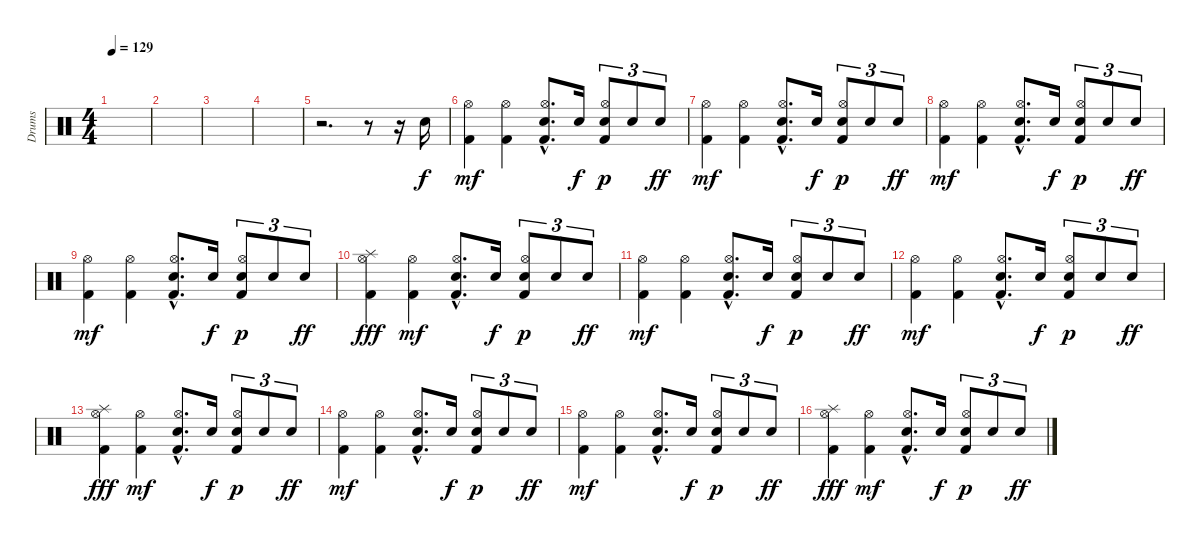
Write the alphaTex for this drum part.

\track ("Drums" "Drums") {instrument percussion}
\staff {score}
\articulation defaults
\ts (4 4)
\tempo 129
\clef neutral
\ks c
|
|
|
|
r.2{d} r.8 r.16 "Electric Snare (hit)".16 |
("Hi-Hat (open)" "Kick (hit) 2").4{dy mf} ("Hi-Hat (open)" "Kick (hit) 2").4 ("Hi-Hat (open)"{hac} "Electric Snare (hit)"{hac} "Kick (hit) 2"{hac}).8{d} "Electric Snare (hit)".16{dy f} ("Hi-Hat (open)" "Electric Snare (hit)" "Kick (hit) 2").8{tu (3 2) dy p} "Electric Snare (hit)".8{tu (3 2)} "Electric Snare (hit)".8{tu (3 2) dy ff} |
("Hi-Hat (open)" "Kick (hit) 2").4{dy mf} ("Hi-Hat (open)" "Kick (hit) 2").4 ("Hi-Hat (open)"{hac} "Electric Snare (hit)"{hac} "Kick (hit) 2"{hac}).8{d} "Electric Snare (hit)".16{dy f} ("Hi-Hat (open)" "Electric Snare (hit)" "Kick (hit) 2").8{tu (3 2) dy p} "Electric Snare (hit)".8{tu (3 2)} "Electric Snare (hit)".8{tu (3 2) dy ff} |
("Hi-Hat (open)" "Kick (hit) 2").4{dy mf} ("Hi-Hat (open)" "Kick (hit) 2").4 ("Hi-Hat (open)"{hac} "Electric Snare (hit)"{hac} "Kick (hit) 2"{hac}).8{d} "Electric Snare (hit)".16{dy f} ("Hi-Hat (open)" "Electric Snare (hit)" "Kick (hit) 2").8{tu (3 2) dy p} "Electric Snare (hit)".8{tu (3 2)} "Electric Snare (hit)".8{tu (3 2) dy ff} |
("Hi-Hat (open)" "Kick (hit) 2").4{dy mf} ("Hi-Hat (open)" "Kick (hit) 2").4 ("Hi-Hat (open)"{hac} "Electric Snare (hit)"{hac} "Kick (hit) 2"{hac}).8{d} "Electric Snare (hit)".16{dy f} ("Hi-Hat (open)" "Electric Snare (hit)" "Kick (hit) 2").8{tu (3 2) dy p} "Electric Snare (hit)".8{tu (3 2)} "Electric Snare (hit)".8{tu (3 2) dy ff} |
("Hi-Hat (open)" "Splash (hit)" "Kick (hit) 2").4{dy fff} ("Hi-Hat (open)" "Kick (hit) 2").4{dy mf} ("Hi-Hat (open)"{hac} "Electric Snare (hit)"{hac} "Kick (hit) 2"{hac}).8{d} "Electric Snare (hit)".16{dy f} ("Hi-Hat (open)" "Electric Snare (hit)" "Kick (hit) 2").8{tu (3 2) dy p} "Electric Snare (hit)".8{tu (3 2)} "Electric Snare (hit)".8{tu (3 2) dy ff} |
("Hi-Hat (open)" "Kick (hit) 2").4{dy mf} ("Hi-Hat (open)" "Kick (hit) 2").4 ("Hi-Hat (open)"{hac} "Electric Snare (hit)"{hac} "Kick (hit) 2"{hac}).8{d} "Electric Snare (hit)".16{dy f} ("Hi-Hat (open)" "Electric Snare (hit)" "Kick (hit) 2").8{tu (3 2) dy p} "Electric Snare (hit)".8{tu (3 2)} "Electric Snare (hit)".8{tu (3 2) dy ff} |
("Hi-Hat (open)" "Kick (hit) 2").4{dy mf} ("Hi-Hat (open)" "Kick (hit) 2").4 ("Hi-Hat (open)"{hac} "Electric Snare (hit)"{hac} "Kick (hit) 2"{hac}).8{d} "Electric Snare (hit)".16{dy f} ("Hi-Hat (open)" "Electric Snare (hit)" "Kick (hit) 2").8{tu (3 2) dy p} "Electric Snare (hit)".8{tu (3 2)} "Electric Snare (hit)".8{tu (3 2) dy ff} |
("Hi-Hat (open)" "Splash (hit)" "Kick (hit) 2").4{dy fff} ("Hi-Hat (open)" "Kick (hit) 2").4{dy mf} ("Hi-Hat (open)"{hac} "Electric Snare (hit)"{hac} "Kick (hit) 2"{hac}).8{d} "Electric Snare (hit)".16{dy f} ("Hi-Hat (open)" "Electric Snare (hit)" "Kick (hit) 2").8{tu (3 2) dy p} "Electric Snare (hit)".8{tu (3 2)} "Electric Snare (hit)".8{tu (3 2) dy ff} |
("Hi-Hat (open)" "Kick (hit) 2").4{dy mf} ("Hi-Hat (open)" "Kick (hit) 2").4 ("Hi-Hat (open)"{hac} "Electric Snare (hit)"{hac} "Kick (hit) 2"{hac}).8{d} "Electric Snare (hit)".16{dy f} ("Hi-Hat (open)" "Electric Snare (hit)" "Kick (hit) 2").8{tu (3 2) dy p} "Electric Snare (hit)".8{tu (3 2)} "Electric Snare (hit)".8{tu (3 2) dy ff} |
("Hi-Hat (open)" "Kick (hit) 2").4{dy mf} ("Hi-Hat (open)" "Kick (hit) 2").4 ("Hi-Hat (open)"{hac} "Electric Snare (hit)"{hac} "Kick (hit) 2"{hac}).8{d} "Electric Snare (hit)".16{dy f} ("Hi-Hat (open)" "Electric Snare (hit)" "Kick (hit) 2").8{tu (3 2) dy p} "Electric Snare (hit)".8{tu (3 2)} "Electric Snare (hit)".8{tu (3 2) dy ff} |
("Hi-Hat (open)" "Splash (hit)" "Kick (hit) 2").4{dy fff} ("Hi-Hat (open)" "Kick (hit) 2").4{dy mf} ("Hi-Hat (open)"{hac} "Electric Snare (hit)"{hac} "Kick (hit) 2"{hac}).8{d} "Electric Snare (hit)".16{dy f} ("Hi-Hat (open)" "Electric Snare (hit)" "Kick (hit) 2").8{tu (3 2) dy p} "Electric Snare (hit)".8{tu (3 2)} "Electric Snare (hit)".8{tu (3 2) dy ff}
